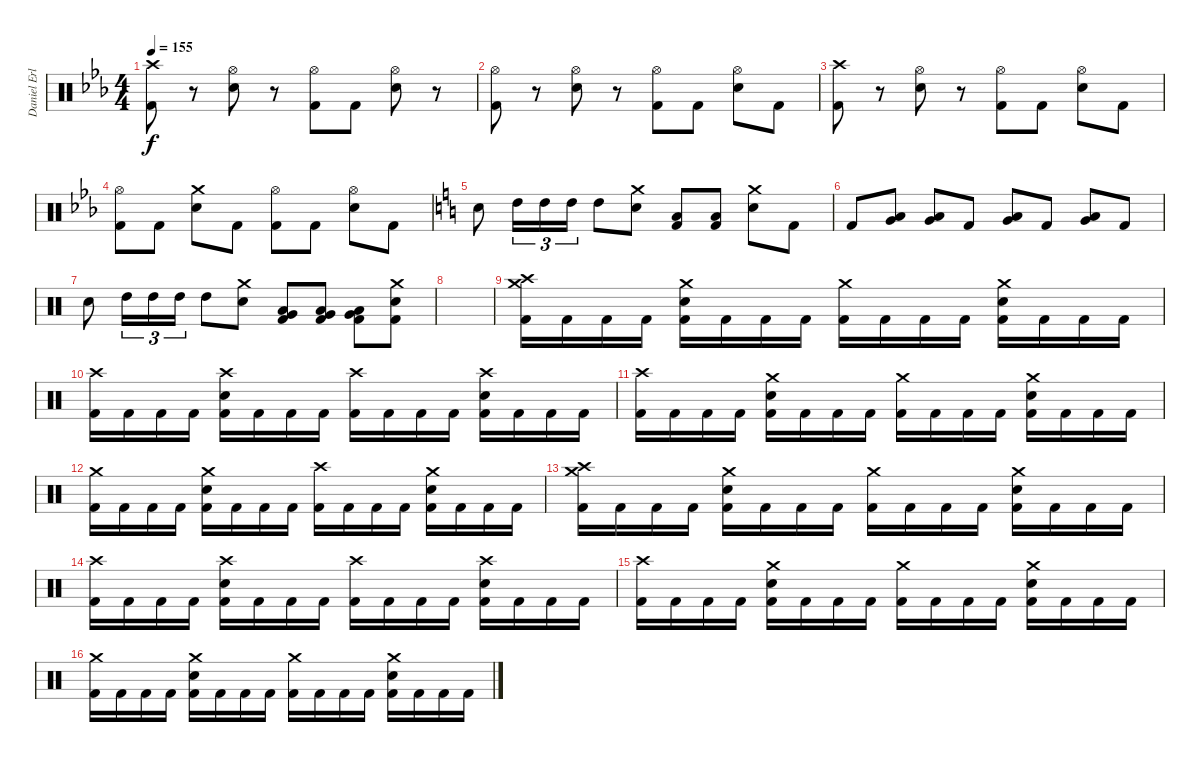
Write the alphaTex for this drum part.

\track ("Daniel Erlandsson" "Daniel Erl") {instrument percussion}
\staff {score}
\articulation defaults
\ts (4 4)
\tempo 155
\clef neutral
\ks cminor
("Crash high (hit)" "Kick (hit) 2").8{dy f} r.8 ("Hi-Hat (open)" "Snare (hit) 2").8 r.8 ("Hi-Hat (open)" "Kick (hit) 2").8 "Kick (hit) 2".8 ("Hi-Hat (open)" "Snare (hit) 2").8 r.8 |
("Hi-Hat (open)" "Kick (hit) 2").8 r.8 ("Hi-Hat (open)" "Snare (hit) 2").8 r.8 ("Hi-Hat (open)" "Kick (hit) 2").8 "Kick (hit) 2".8 ("Hi-Hat (open)" "Snare (hit) 2").8 "Kick (hit) 2".8 |
("Crash high (hit)" "Kick (hit) 2").8 r.8 ("Hi-Hat (open)" "Snare (hit) 2").8 r.8 ("Hi-Hat (open)" "Kick (hit) 2").8 "Kick (hit) 2".8 ("Hi-Hat (open)" "Snare (hit) 2").8 "Kick (hit) 2".8 |
("Hi-Hat (open)" "Kick (hit) 2").8 "Kick (hit) 2".8 ("Crash medium (hit)" "Snare (hit) 2").8 "Kick (hit) 2".8 ("Hi-Hat (open)" "Kick (hit) 2").8 "Kick (hit) 2".8 ("Hi-Hat (open)" "Snare (hit) 2").8 "Kick (hit) 2".8 |
\ks c "Snare (hit) 2".8 "High Tom (hit)".16{tu (3 2)} "High Tom (hit)".16{tu (3 2)} "High Tom (hit)".16{tu (3 2)} "High Tom (hit)".8
("Crash medium (hit)" "Snare (hit) 2").8 ("Low Tom (hit)" "Kick (hit) 2").8 ("Low Tom (hit)" "Kick (hit) 2").8 ("Crash medium (hit)" "Snare (hit) 2").8 "Kick (hit) 2".8 |
"Kick (hit) 2".8 ("Very Low Tom (hit)" "Low Tom (hit)").8 ("Very Low Tom (hit)" "Low Tom (hit)").8 "Kick (hit) 2".8 ("Very Low Tom (hit)" "Low Tom (hit)").8 "Kick (hit) 2".8 ("Low Floor Tom (hit)" "Very Low Tom (hit)").8 "Kick (hit) 2".8 |
"Snare (hit) 2".8 "High Tom (hit)".16{tu (3 2)} "High Tom (hit)".16{tu (3 2)} "High Tom (hit)".16{tu (3 2)} "High Tom (hit)".8 ("Crash medium (hit)" "Snare (hit) 2").8 ("Very Low Tom (hit)" "Low Tom (hit)" "Kick (hit) 2").8 ("Very Low Tom (hit)" "Low Tom (hit)" "Kick (hit) 2").8 ("Very Low Tom (hit)" "Low Tom (hit)" "Kick (hit) 2").8 ("Crash medium (hit)" "Snare (hit) 2" "Kick (hit) 2").8 |
|
("Crash high (hit)" "Crash medium (hit)" "Kick (hit) 2").16 "Kick (hit) 2".16 "Kick (hit) 2".16 "Kick (hit) 2".16 ("Crash medium (hit)" "Snare (hit) 2" "Kick (hit) 2").16 "Kick (hit) 2".16 "Kick (hit) 2".16 "Kick (hit) 2".16 ("Crash medium (hit)" "Kick (hit) 2").16 "Kick (hit) 2".16 "Kick (hit) 2".16 "Kick (hit) 2".16 ("Crash medium (hit)" "Snare (hit) 2" "Kick (hit) 2").16 "Kick (hit) 2".16 "Kick (hit) 2".16 "Kick (hit) 2".16 |
("Crash high (hit)" "Kick (hit) 2").16 "Kick (hit) 2".16 "Kick (hit) 2".16 "Kick (hit) 2".16 ("Crash high (hit)" "Snare (hit) 2" "Kick (hit) 2").16 "Kick (hit) 2".16 "Kick (hit) 2".16 "Kick (hit) 2".16 ("Crash high (hit)" "Kick (hit) 2").16 "Kick (hit) 2".16 "Kick (hit) 2".16 "Kick (hit) 2".16 ("Crash high (hit)" "Snare (hit) 2" "Kick (hit) 2").16 "Kick (hit) 2".16 "Kick (hit) 2".16 "Kick (hit) 2".16 |
("Crash high (hit)" "Kick (hit) 2").16 "Kick (hit) 2".16 "Kick (hit) 2".16 "Kick (hit) 2".16 ("Crash medium (hit)" "Snare (hit) 2" "Kick (hit) 2").16 "Kick (hit) 2".16 "Kick (hit) 2".16 "Kick (hit) 2".16 ("Crash medium (hit)" "Kick (hit) 2").16 "Kick (hit) 2".16 "Kick (hit) 2".16 "Kick (hit) 2".16 ("Crash medium (hit)" "Snare (hit) 2" "Kick (hit) 2").16 "Kick (hit) 2".16 "Kick (hit) 2".16 "Kick (hit) 2".16 |
("Crash medium (hit)" "Kick (hit) 2").16 "Kick (hit) 2".16 "Kick (hit) 2".16 "Kick (hit) 2".16 ("Crash medium (hit)" "Snare (hit) 2" "Kick (hit) 2").16 "Kick (hit) 2".16 "Kick (hit) 2".16 "Kick (hit) 2".16 ("Crash high (hit)" "Kick (hit) 2").16 "Kick (hit) 2".16 "Kick (hit) 2".16 "Kick (hit) 2".16 ("Crash medium (hit)" "Snare (hit) 2" "Kick (hit) 2").16 "Kick (hit) 2".16 "Kick (hit) 2".16 "Kick (hit) 2".16 |
("Crash high (hit)" "Crash medium (hit)" "Kick (hit) 2").16 "Kick (hit) 2".16 "Kick (hit) 2".16 "Kick (hit) 2".16 ("Crash medium (hit)" "Snare (hit) 2" "Kick (hit) 2").16 "Kick (hit) 2".16 "Kick (hit) 2".16 "Kick (hit) 2".16 ("Crash medium (hit)" "Kick (hit) 2").16 "Kick (hit) 2".16 "Kick (hit) 2".16 "Kick (hit) 2".16 ("Crash medium (hit)" "Snare (hit) 2" "Kick (hit) 2").16 "Kick (hit) 2".16 "Kick (hit) 2".16 "Kick (hit) 2".16 |
("Crash high (hit)" "Kick (hit) 2").16 "Kick (hit) 2".16 "Kick (hit) 2".16 "Kick (hit) 2".16 ("Crash high (hit)" "Snare (hit) 2" "Kick (hit) 2").16 "Kick (hit) 2".16 "Kick (hit) 2".16 "Kick (hit) 2".16 ("Crash high (hit)" "Kick (hit) 2").16 "Kick (hit) 2".16 "Kick (hit) 2".16 "Kick (hit) 2".16 ("Crash high (hit)" "Snare (hit) 2" "Kick (hit) 2").16 "Kick (hit) 2".16 "Kick (hit) 2".16 "Kick (hit) 2".16 |
("Crash high (hit)" "Kick (hit) 2").16 "Kick (hit) 2".16 "Kick (hit) 2".16 "Kick (hit) 2".16 ("Crash medium (hit)" "Snare (hit) 2" "Kick (hit) 2").16 "Kick (hit) 2".16 "Kick (hit) 2".16 "Kick (hit) 2".16 ("Crash medium (hit)" "Kick (hit) 2").16 "Kick (hit) 2".16 "Kick (hit) 2".16 "Kick (hit) 2".16 ("Crash medium (hit)" "Snare (hit) 2" "Kick (hit) 2").16 "Kick (hit) 2".16 "Kick (hit) 2".16 "Kick (hit) 2".16 |
("Crash medium (hit)" "Kick (hit) 2").16 "Kick (hit) 2".16 "Kick (hit) 2".16 "Kick (hit) 2".16 ("Crash medium (hit)" "Snare (hit) 2" "Kick (hit) 2").16 "Kick (hit) 2".16 "Kick (hit) 2".16 "Kick (hit) 2".16 ("Crash medium (hit)" "Kick (hit) 2").16 "Kick (hit) 2".16 "Kick (hit) 2".16 "Kick (hit) 2".16 ("Crash medium (hit)" "Snare (hit) 2" "Kick (hit) 2").16 "Kick (hit) 2".16 "Kick (hit) 2".16 "Kick (hit) 2".16
